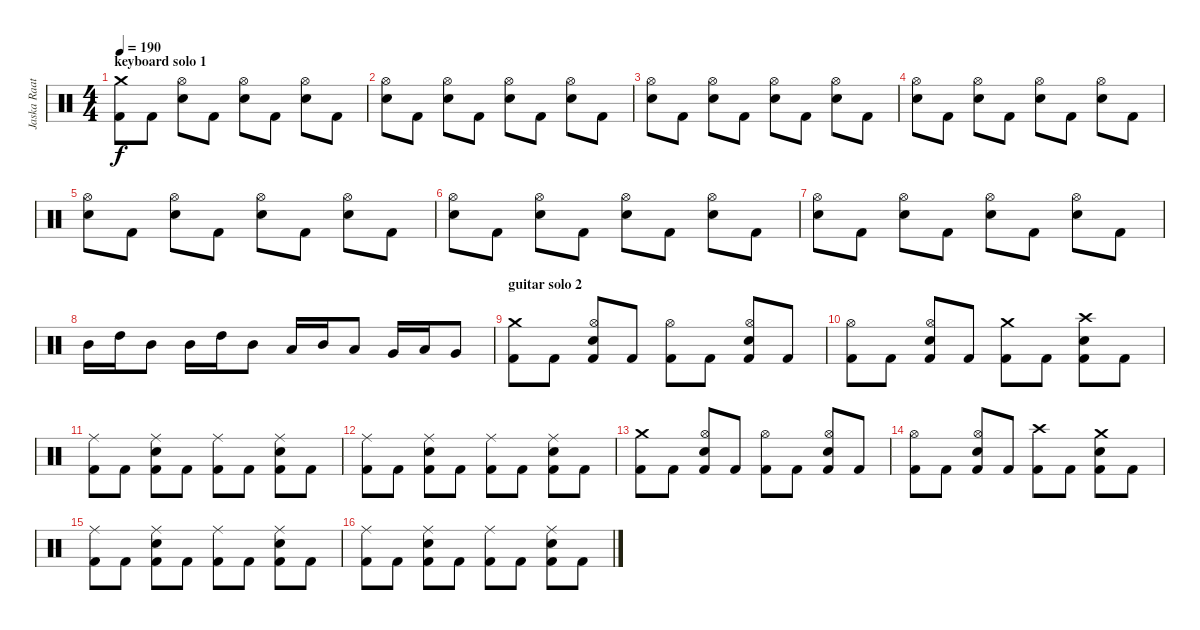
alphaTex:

\track ("Jaska Raatikainen" "Jaska Raat") {instrument percussion}
\staff {score}
\articulation defaults
\ts (4 4)
\section ("" "keyboard solo 1")
\tempo 190
\clef neutral
\ks c
("Crash medium (hit)" "Kick (hit) 2").8{dy f} "Kick (hit) 2".8 ("Hi-Hat (open)" "Snare (hit) 2").8 "Kick (hit) 2".8 ("Hi-Hat (open)" "Snare (hit) 2").8 "Kick (hit) 2".8 ("Hi-Hat (open)" "Snare (hit) 2").8 "Kick (hit) 2".8 |
("Hi-Hat (open)" "Snare (hit) 2").8 "Kick (hit) 2".8 ("Hi-Hat (open)" "Snare (hit) 2").8 "Kick (hit) 2".8 ("Hi-Hat (open)" "Snare (hit) 2").8 "Kick (hit) 2".8 ("Hi-Hat (open)" "Snare (hit) 2").8 "Kick (hit) 2".8 |
("Hi-Hat (open)" "Snare (hit) 2").8 "Kick (hit) 2".8 ("Hi-Hat (open)" "Snare (hit) 2").8 "Kick (hit) 2".8 ("Hi-Hat (open)" "Snare (hit) 2").8 "Kick (hit) 2".8 ("Hi-Hat (open)" "Snare (hit) 2").8 "Kick (hit) 2".8 |
("Hi-Hat (open)" "Snare (hit) 2").8 "Kick (hit) 2".8 ("Hi-Hat (open)" "Snare (hit) 2").8 "Kick (hit) 2".8 ("Hi-Hat (open)" "Snare (hit) 2").8 "Kick (hit) 2".8 ("Hi-Hat (open)" "Snare (hit) 2").8 "Kick (hit) 2".8 |
("Hi-Hat (open)" "Snare (hit) 2").8 "Kick (hit) 2".8 ("Hi-Hat (open)" "Snare (hit) 2").8 "Kick (hit) 2".8 ("Hi-Hat (open)" "Snare (hit) 2").8 "Kick (hit) 2".8 ("Hi-Hat (open)" "Snare (hit) 2").8 "Kick (hit) 2".8 |
("Hi-Hat (open)" "Snare (hit) 2").8 "Kick (hit) 2".8 ("Hi-Hat (open)" "Snare (hit) 2").8 "Kick (hit) 2".8 ("Hi-Hat (open)" "Snare (hit) 2").8 "Kick (hit) 2".8 ("Hi-Hat (open)" "Snare (hit) 2").8 "Kick (hit) 2".8 |
("Hi-Hat (open)" "Snare (hit) 2").8 "Kick (hit) 2".8 ("Hi-Hat (open)" "Snare (hit) 2").8 "Kick (hit) 2".8 ("Hi-Hat (open)" "Snare (hit) 2").8 "Kick (hit) 2".8 ("Hi-Hat (open)" "Snare (hit) 2").8 "Kick (hit) 2".8 |
"Mid Tom (hit)".16 "High Tom (hit)".16 "Mid Tom (hit)".8 "Mid Tom (hit)".16 "High Tom (hit)".16 "Mid Tom (hit)".8 "Low Tom (hit)".16 "Mid Tom (hit)".16 "Low Tom (hit)".8 "Very Low Tom (hit)".16 "Low Tom (hit)".16 "Very Low Tom (hit)".8 |
\section ("" "guitar solo 2")
("Crash medium (hit)" "Kick (hit) 2").8 "Kick (hit) 2".8 ("Hi-Hat (open)" "Snare (hit) 2" "Kick (hit) 2").8 "Kick (hit) 2".8 ("Hi-Hat (open)" "Kick (hit) 2").8 "Kick (hit) 2".8 ("Hi-Hat (open)" "Snare (hit) 2" "Kick (hit) 2").8 "Kick (hit) 2".8 |
("Hi-Hat (open)" "Kick (hit) 2").8 "Kick (hit) 2".8 ("Hi-Hat (open)" "Snare (hit) 2" "Kick (hit) 2").8 "Kick (hit) 2".8 ("Crash medium (hit)" "Kick (hit) 2").8 "Kick (hit) 2".8 ("Crash high (hit)" "Snare (hit) 2" "Kick (hit) 2").8 "Kick (hit) 2".8 |
("Ride (middle)" "Kick (hit) 2").8 "Kick (hit) 2".8 ("Ride (middle)" "Snare (hit) 2" "Kick (hit) 2").8 "Kick (hit) 2".8 ("Ride (middle)" "Kick (hit) 2").8 "Kick (hit) 2".8 ("Ride (middle)" "Snare (hit) 2" "Kick (hit) 2").8 "Kick (hit) 2".8 |
("Ride (middle)" "Kick (hit) 2").8 "Kick (hit) 2".8 ("Ride (middle)" "Snare (hit) 2" "Kick (hit) 2").8 "Kick (hit) 2".8 ("Ride (middle)" "Kick (hit) 2").8 "Kick (hit) 2".8 ("Ride (middle)" "Snare (hit) 2" "Kick (hit) 2").8 "Kick (hit) 2".8 |
("Crash medium (hit)" "Kick (hit) 2").8 "Kick (hit) 2".8 ("Hi-Hat (open)" "Snare (hit) 2" "Kick (hit) 2").8 "Kick (hit) 2".8 ("Hi-Hat (open)" "Kick (hit) 2").8 "Kick (hit) 2".8 ("Hi-Hat (open)" "Snare (hit) 2" "Kick (hit) 2").8 "Kick (hit) 2".8 |
("Hi-Hat (open)" "Kick (hit) 2").8 "Kick (hit) 2".8 ("Hi-Hat (open)" "Snare (hit) 2" "Kick (hit) 2").8 "Kick (hit) 2".8 ("Crash high (hit)" "Kick (hit) 2").8 "Kick (hit) 2".8 ("Crash medium (hit)" "Snare (hit) 2" "Kick (hit) 2").8 "Kick (hit) 2".8 |
("Ride (middle)" "Kick (hit) 2").8 "Kick (hit) 2".8 ("Ride (middle)" "Snare (hit) 2" "Kick (hit) 2").8 "Kick (hit) 2".8 ("Ride (middle)" "Kick (hit) 2").8 "Kick (hit) 2".8 ("Ride (middle)" "Snare (hit) 2" "Kick (hit) 2").8 "Kick (hit) 2".8 |
("Ride (middle)" "Kick (hit) 2").8 "Kick (hit) 2".8 ("Ride (middle)" "Snare (hit) 2" "Kick (hit) 2").8 "Kick (hit) 2".8 ("Ride (middle)" "Kick (hit) 2").8 "Kick (hit) 2".8 ("Ride (middle)" "Snare (hit) 2" "Kick (hit) 2").8 "Kick (hit) 2".8
